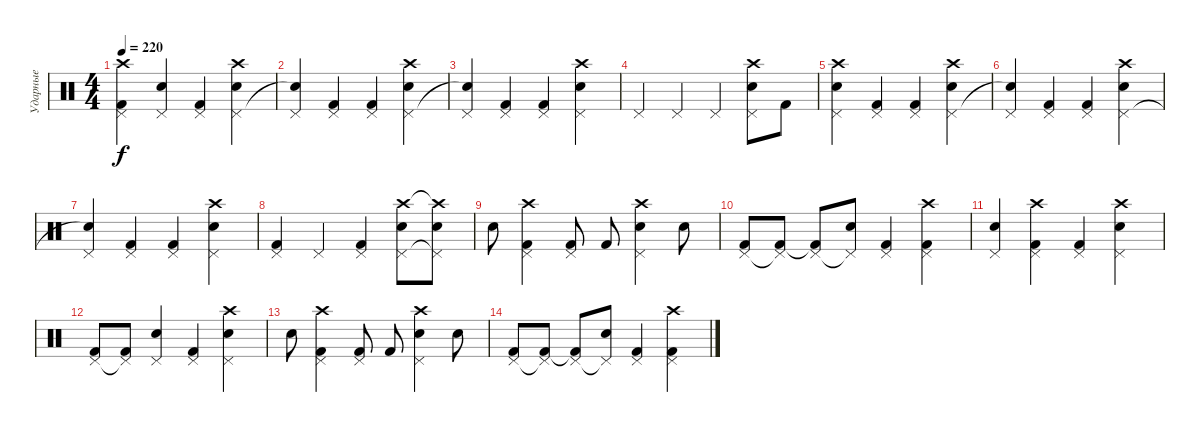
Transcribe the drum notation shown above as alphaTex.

\track ("Ударные" "Ударные") {instrument percussion}
\staff {score}
\articulation defaults
\ts (4 4)
\tempo 220
\clef neutral
\ks c
("Crash high (hit)" "Pedal Hi-Hat (hit)" "Kick (hit) 2").4{dy f} ("Pedal Hi-Hat (hit)" "Electric Snare (hit)").4 ("Pedal Hi-Hat (hit)" "Kick (hit) 2").4 ("Crash high (hit)" "Pedal Hi-Hat (hit)" "Electric Snare (hit)").4 |
("Pedal Hi-Hat (hit)" "Electric Snare (hit)"{t}).4 ("Pedal Hi-Hat (hit)" "Kick (hit) 2").4 ("Pedal Hi-Hat (hit)" "Kick (hit) 2").4 ("Crash high (hit)" "Pedal Hi-Hat (hit)" "Electric Snare (hit)").4 |
("Pedal Hi-Hat (hit)" "Electric Snare (hit)"{t}).4 ("Pedal Hi-Hat (hit)" "Kick (hit) 2").4 ("Pedal Hi-Hat (hit)" "Kick (hit) 2").4 ("Crash high (hit)" "Pedal Hi-Hat (hit)" "Electric Snare (hit)").4 |
"Pedal Hi-Hat (hit)".4 "Pedal Hi-Hat (hit)".4 "Pedal Hi-Hat (hit)".4 ("Crash high (hit)" "Pedal Hi-Hat (hit)" "Snare (hit) 2").8 "Kick (hit) 2".8 |
("Crash high (hit)" "Pedal Hi-Hat (hit)" "Electric Snare (hit)").4 ("Pedal Hi-Hat (hit)" "Kick (hit) 2").4 ("Pedal Hi-Hat (hit)" "Kick (hit) 2").4 ("Crash high (hit)" "Pedal Hi-Hat (hit)" "Electric Snare (hit)").4 |
("Pedal Hi-Hat (hit)" "Electric Snare (hit)"{t}).4 ("Pedal Hi-Hat (hit)" "Kick (hit) 2").4 ("Pedal Hi-Hat (hit)" "Kick (hit) 2").4 ("Crash high (hit)" "Pedal Hi-Hat (hit)" "Electric Snare (hit)").4 |
("Pedal Hi-Hat (hit)" "Electric Snare (hit)"{t}).4 ("Pedal Hi-Hat (hit)" "Kick (hit) 2").4 ("Pedal Hi-Hat (hit)" "Kick (hit) 2").4 ("Crash high (hit)" "Pedal Hi-Hat (hit)" "Electric Snare (hit)").4 |
("Pedal Hi-Hat (hit)" "Kick (hit) 2").4 "Pedal Hi-Hat (hit)".4 ("Pedal Hi-Hat (hit)" "Kick (hit) 2").4 ("Crash high (hit)" "Pedal Hi-Hat (hit)" "Electric Snare (hit)").8 ("Crash high (hit)"{t} "Pedal Hi-Hat (hit)"{t} "Electric Snare (hit)").8 |
"Snare (hit) 2".8 ("Crash high (hit)" "Pedal Hi-Hat (hit)" "Kick (hit) 2").4 ("Pedal Hi-Hat (hit)" "Kick (hit) 2").8 "Kick (hit) 2".8 ("Crash high (hit)" "Pedal Hi-Hat (hit)" "Electric Snare (hit)").4 "Snare (hit) 2".8 |
("Pedal Hi-Hat (hit)" "Kick (hit) 2").8 ("Pedal Hi-Hat (hit)"{t} "Kick (hit) 2").8 ("Pedal Hi-Hat (hit)" "Kick (hit) 2"{t}).8 ("Pedal Hi-Hat (hit)"{t} "Snare (hit) 2").8 ("Pedal Hi-Hat (hit)" "Kick (hit) 2").4 ("Crash high (hit)" "Pedal Hi-Hat (hit)" "Kick (hit) 2").4 |
("Pedal Hi-Hat (hit)" "Electric Snare (hit)").4 ("Crash high (hit)" "Pedal Hi-Hat (hit)" "Kick (hit) 2").4 ("Pedal Hi-Hat (hit)" "Kick (hit) 2").4 ("Crash high (hit)" "Pedal Hi-Hat (hit)" "Snare (hit) 2").4 |
("Pedal Hi-Hat (hit)" "Kick (hit) 2").8 ("Pedal Hi-Hat (hit)"{t} "Kick (hit) 2").8 ("Pedal Hi-Hat (hit)" "Electric Snare (hit)").4 ("Pedal Hi-Hat (hit)" "Kick (hit) 2").4 ("Crash high (hit)" "Pedal Hi-Hat (hit)" "Snare (hit) 2").4 |
"Snare (hit) 2".8 ("Crash high (hit)" "Pedal Hi-Hat (hit)" "Kick (hit) 2").4 ("Pedal Hi-Hat (hit)" "Kick (hit) 2").8 "Kick (hit) 2".8 ("Crash high (hit)" "Pedal Hi-Hat (hit)" "Electric Snare (hit)").4 "Snare (hit) 2".8 |
("Pedal Hi-Hat (hit)" "Kick (hit) 2").8 ("Pedal Hi-Hat (hit)"{t} "Kick (hit) 2").8 ("Pedal Hi-Hat (hit)" "Kick (hit) 2"{t}).8 ("Pedal Hi-Hat (hit)"{t} "Snare (hit) 2").8 ("Pedal Hi-Hat (hit)" "Kick (hit) 2").4 ("Crash high (hit)" "Pedal Hi-Hat (hit)" "Kick (hit) 2").4
